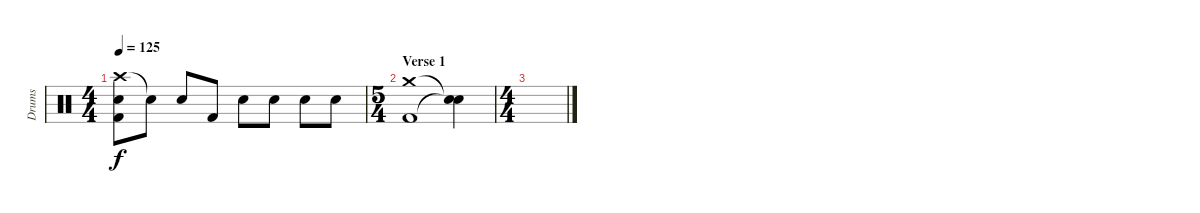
\track ("Drums" "Drums") {instrument percussion}
\staff {score}
\articulation defaults
\ts (4 4)
\tempo 125
\clef neutral
\ks c
("Crash high (hit)" "Electric Snare (hit)" "Kick (hit) 2").8{dy f} "Snare (hit)"{t}.8 "Electric Snare (hit)".8 "Kick (hit) 2".8 "Electric Snare (hit)".8 "Electric Snare (hit)".8 "Electric Snare (hit)".8 "Electric Snare (hit)".8 |
\ts (5 4)
\section ("" "Verse 1")
("Crash medium (hit)" "Kick (hit) 2").1 ("Snare (hit)"{t} "Snare (hit)"{t}).4 |
\ts (4 4)
